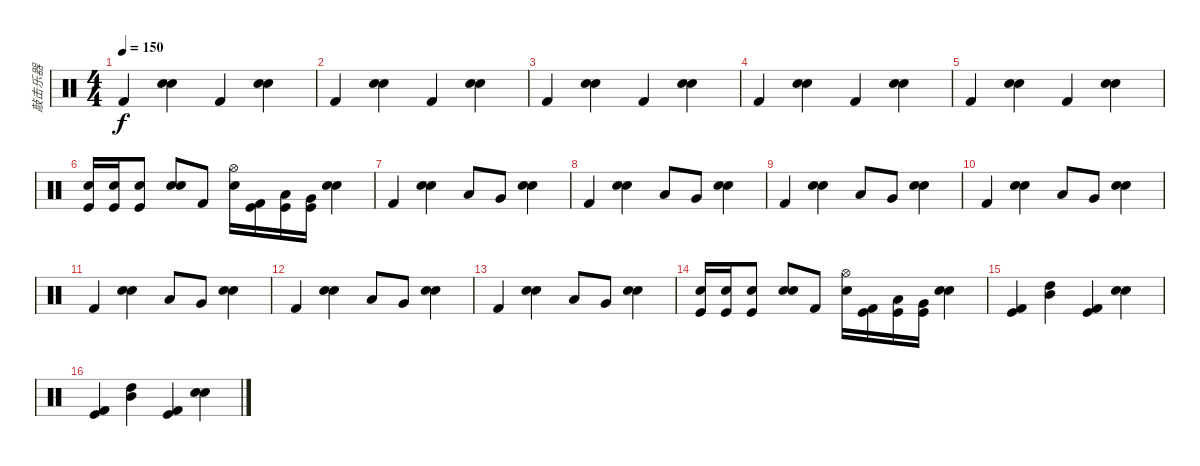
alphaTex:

\track ("敲击乐器" "敲击乐器") {instrument percussion}
\staff {score}
\articulation defaults
\ts (4 4)
\tempo 150
\clef neutral
\ks c "Kick (hit) 2".4{dy f}
("Electric Snare (hit)" "Snare (hit) 2").4 "Kick (hit) 2".4 ("Electric Snare (hit)" "Snare (hit) 2").4 |
"Kick (hit) 2".4 ("Electric Snare (hit)" "Snare (hit) 2").4 "Kick (hit) 2".4 ("Electric Snare (hit)" "Snare (hit) 2").4 |
"Kick (hit) 2".4 ("Electric Snare (hit)" "Snare (hit) 2").4 "Kick (hit) 2".4 ("Electric Snare (hit)" "Snare (hit) 2").4 |
"Kick (hit) 2".4 ("Electric Snare (hit)" "Snare (hit) 2").4 "Kick (hit) 2".4 ("Electric Snare (hit)" "Snare (hit) 2").4 |
"Kick (hit) 2".4 ("Electric Snare (hit)" "Snare (hit) 2").4 "Kick (hit) 2".4 ("Electric Snare (hit)" "Snare (hit) 2").4 |
("Snare (hit) 2" "Kick (hit)").16 ("Snare (hit) 2" "Kick (hit)").16 ("Snare (hit) 2" "Kick (hit)").8 ("Electric Snare (hit)" "Snare (hit) 2").8 "Kick (hit) 2".8 ("Hi-Hat (open)" "Snare (hit) 2").16 ("Kick (hit) 2" "Kick (hit)").16 ("Low Tom (hit)" "Kick (hit)").16 ("Very Low Tom (hit)" "Kick (hit)").16 ("Electric Snare (hit)" "Snare (hit) 2").4 |
"Kick (hit) 2".4 ("Electric Snare (hit)" "Snare (hit) 2").4 "Low Tom (hit)".8 "Very Low Tom (hit)".8 ("Electric Snare (hit)" "Snare (hit) 2").4 |
"Kick (hit) 2".4 ("Electric Snare (hit)" "Snare (hit) 2").4 "Low Tom (hit)".8 "Very Low Tom (hit)".8 ("Electric Snare (hit)" "Snare (hit) 2").4 |
"Kick (hit) 2".4 ("Electric Snare (hit)" "Snare (hit) 2").4 "Low Tom (hit)".8 "Very Low Tom (hit)".8 ("Electric Snare (hit)" "Snare (hit) 2").4 |
"Kick (hit) 2".4 ("Electric Snare (hit)" "Snare (hit) 2").4 "Low Tom (hit)".8 "Very Low Tom (hit)".8 ("Electric Snare (hit)" "Snare (hit) 2").4 |
"Kick (hit) 2".4 ("Electric Snare (hit)" "Snare (hit) 2").4 "Low Tom (hit)".8 "Very Low Tom (hit)".8 ("Electric Snare (hit)" "Snare (hit) 2").4 |
"Kick (hit) 2".4 ("Electric Snare (hit)" "Snare (hit) 2").4 "Low Tom (hit)".8 "Very Low Tom (hit)".8 ("Electric Snare (hit)" "Snare (hit) 2").4 |
"Kick (hit) 2".4 ("Electric Snare (hit)" "Snare (hit) 2").4 "Low Tom (hit)".8 "Very Low Tom (hit)".8 ("Electric Snare (hit)" "Snare (hit) 2").4 |
("Snare (hit) 2" "Kick (hit)").16 ("Snare (hit) 2" "Kick (hit)").16 ("Snare (hit) 2" "Kick (hit)").8 ("Electric Snare (hit)" "Snare (hit) 2").8 "Kick (hit) 2".8 ("Hi-Hat (open)" "Snare (hit) 2").16 ("Kick (hit) 2" "Kick (hit)").16 ("Low Tom (hit)" "Kick (hit)").16 ("Very Low Tom (hit)" "Kick (hit)").16 ("Electric Snare (hit)" "Snare (hit) 2").4 |
("Kick (hit) 2" "Kick (hit)").4 ("High Tom (hit)" "Mid Tom (hit)").4 ("Kick (hit) 2" "Kick (hit)").4 ("Electric Snare (hit)" "Snare (hit) 2").4 |
("Kick (hit) 2" "Kick (hit)").4 ("High Tom (hit)" "Mid Tom (hit)").4 ("Kick (hit) 2" "Kick (hit)").4 ("Electric Snare (hit)" "Snare (hit) 2").4
